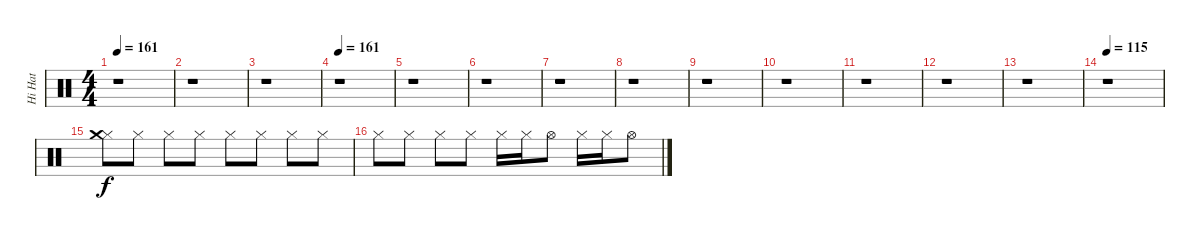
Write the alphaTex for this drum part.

\track ("Hi Hat" "Hi Hat") {instrument percussion}
\staff {score}
\articulation defaults
\ts (4 4)
\tempo 161
\clef neutral
\ks c
r.1{dy f} |
r.1 |
r.1 |
\tempo 161
r.1 |
r.1 |
r.1 |
r.1 |
r.1 |
r.1 |
r.1 |
r.1 |
r.1 |
r.1 |
\tempo 115
r.1 |
("Hi-Hat (closed)" "Crash medium (hit)").8 "Hi-Hat (closed)".8 "Hi-Hat (closed)".8 "Hi-Hat (closed)".8 "Hi-Hat (closed)".8 "Hi-Hat (closed)".8 "Hi-Hat (closed)".8 "Hi-Hat (closed)".8 |
"Hi-Hat (closed)".8 "Hi-Hat (closed)".8 "Hi-Hat (closed)".8 "Hi-Hat (closed)".8 "Hi-Hat (closed)".16 "Hi-Hat (closed)".16 "Hi-Hat (open)".8 "Hi-Hat (closed)".16 "Hi-Hat (closed)".16 "Hi-Hat (open)".8
